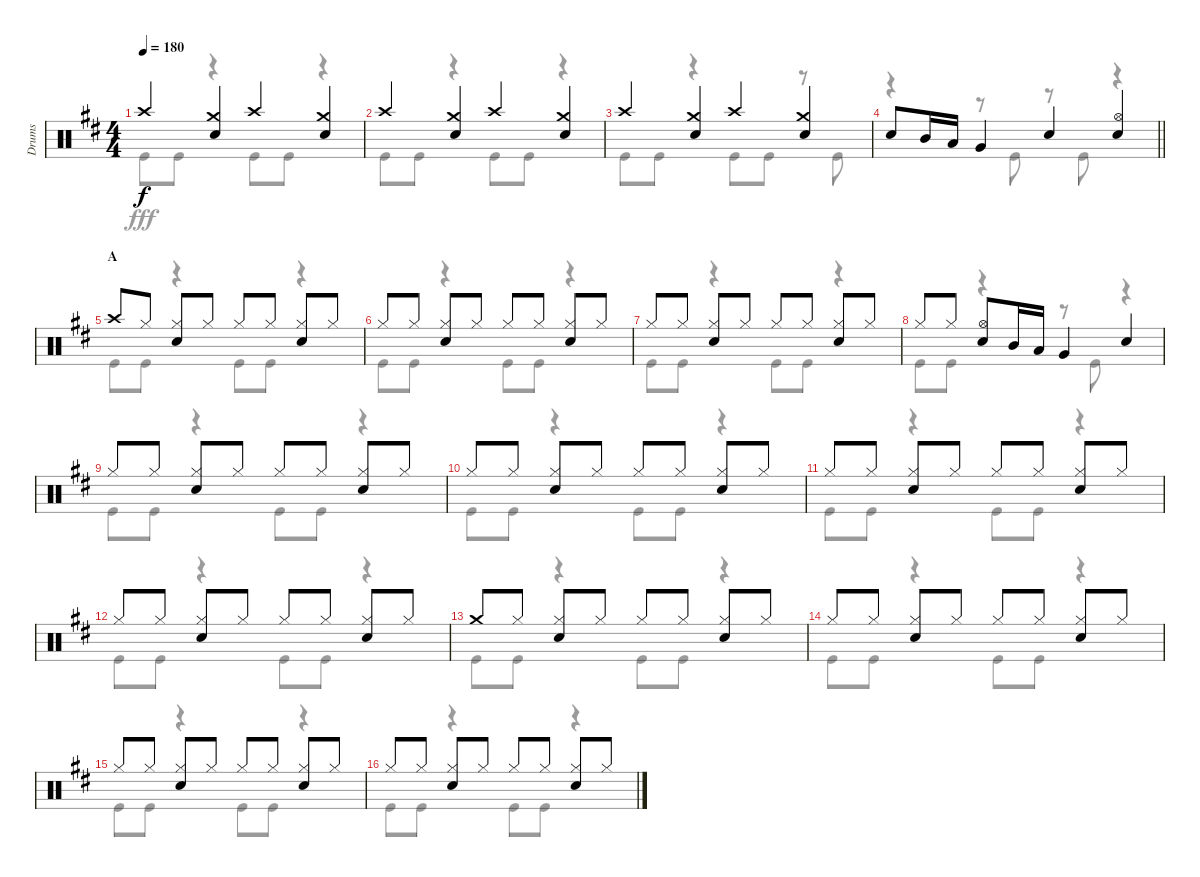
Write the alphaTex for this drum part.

\track ("Drums" "Drums") {instrument percussion}
\staff {score}
\articulation defaults
\voice
\ts (4 4)
\tempo 180
\clef neutral
\ks d "Crash high (hit)".4{dy f}
("Crash medium (hit)" "Snare (hit) 2").4 "Crash high (hit)".4 ("Crash medium (hit)" "Snare (hit) 2").4 |
"Crash high (hit)".4 ("Crash medium (hit)" "Snare (hit) 2").4 "Crash high (hit)".4 ("Crash medium (hit)" "Snare (hit) 2").4 |
"Crash high (hit)".4 ("Crash medium (hit)" "Snare (hit) 2").4 "Crash high (hit)".4 ("Crash medium (hit)" "Snare (hit) 2").4 |
\barLineRight lightlight "Snare (hit) 2".8 "Mid Tom (hit)".16 "Low Tom (hit)".16 "Very Low Tom (hit)".4 "Snare (hit) 2".4
("Hi-Hat (open)" "Snare (hit) 2").4 |
\section ("" "A")
"Crash high (hit)".8 "Hi-Hat (closed)".8 ("Hi-Hat (closed)" "Snare (hit) 2").8 "Hi-Hat (closed)".8 "Hi-Hat (closed)".8 "Hi-Hat (closed)".8 ("Hi-Hat (closed)" "Snare (hit) 2").8 "Hi-Hat (closed)".8 |
"Hi-Hat (closed)".8 "Hi-Hat (closed)".8 ("Hi-Hat (closed)" "Snare (hit) 2").8 "Hi-Hat (closed)".8 "Hi-Hat (closed)".8 "Hi-Hat (closed)".8 ("Hi-Hat (closed)" "Snare (hit) 2").8 "Hi-Hat (closed)".8 |
"Hi-Hat (closed)".8 "Hi-Hat (closed)".8 ("Hi-Hat (closed)" "Snare (hit) 2").8 "Hi-Hat (closed)".8 "Hi-Hat (closed)".8 "Hi-Hat (closed)".8 ("Hi-Hat (closed)" "Snare (hit) 2").8 "Hi-Hat (closed)".8 |
"Hi-Hat (closed)".8 "Hi-Hat (closed)".8 ("Hi-Hat (open)" "Snare (hit) 2").8 "Mid Tom (hit)".16 "Low Tom (hit)".16 "Very Low Tom (hit)".4 "Snare (hit) 2".4 |
"Hi-Hat (closed)".8 "Hi-Hat (closed)".8 ("Hi-Hat (closed)" "Snare (hit) 2").8 "Hi-Hat (closed)".8 "Hi-Hat (closed)".8 "Hi-Hat (closed)".8 ("Hi-Hat (closed)" "Snare (hit) 2").8 "Hi-Hat (closed)".8 |
"Hi-Hat (closed)".8 "Hi-Hat (closed)".8 ("Hi-Hat (closed)" "Snare (hit) 2").8 "Hi-Hat (closed)".8 "Hi-Hat (closed)".8 "Hi-Hat (closed)".8 ("Hi-Hat (closed)" "Snare (hit) 2").8 "Hi-Hat (closed)".8 |
"Hi-Hat (closed)".8 "Hi-Hat (closed)".8 ("Hi-Hat (closed)" "Snare (hit) 2").8 "Hi-Hat (closed)".8 "Hi-Hat (closed)".8 "Hi-Hat (closed)".8 ("Hi-Hat (closed)" "Snare (hit) 2").8 "Hi-Hat (closed)".8 |
"Hi-Hat (closed)".8 "Hi-Hat (closed)".8 ("Hi-Hat (closed)" "Snare (hit) 2").8 "Hi-Hat (closed)".8 "Hi-Hat (closed)".8 "Hi-Hat (closed)".8 ("Hi-Hat (closed)" "Snare (hit) 2").8 "Hi-Hat (closed)".8 |
"Crash medium (hit)".8 "Hi-Hat (closed)".8 ("Hi-Hat (closed)" "Snare (hit) 2").8 "Hi-Hat (closed)".8 "Hi-Hat (closed)".8 "Hi-Hat (closed)".8 ("Hi-Hat (closed)" "Snare (hit) 2").8 "Hi-Hat (closed)".8 |
"Hi-Hat (closed)".8 "Hi-Hat (closed)".8 ("Hi-Hat (closed)" "Snare (hit) 2").8 "Hi-Hat (closed)".8 "Hi-Hat (closed)".8 "Hi-Hat (closed)".8 ("Hi-Hat (closed)" "Snare (hit) 2").8 "Hi-Hat (closed)".8 |
"Hi-Hat (closed)".8 "Hi-Hat (closed)".8 ("Hi-Hat (closed)" "Snare (hit) 2").8 "Hi-Hat (closed)".8 "Hi-Hat (closed)".8 "Hi-Hat (closed)".8 ("Hi-Hat (closed)" "Snare (hit) 2").8 "Hi-Hat (closed)".8 |
"Hi-Hat (closed)".8 "Hi-Hat (closed)".8 ("Hi-Hat (closed)" "Snare (hit) 2").8 "Hi-Hat (closed)".8 "Hi-Hat (closed)".8 "Hi-Hat (closed)".8 ("Hi-Hat (closed)" "Snare (hit) 2").8 "Hi-Hat (closed)".8
\voice
\clef neutral
\ottava regular
\simile none
\ks d "Kick (hit)".8{dy fff} "Kick (hit)".8
r.4 "Kick (hit)".8 "Kick (hit)".8 r.4 |
"Kick (hit)".8 "Kick (hit)".8 r.4 "Kick (hit)".8 "Kick (hit)".8 r.4 |
"Kick (hit)".8 "Kick (hit)".8 r.4 "Kick (hit)".8 "Kick (hit)".8 r.8 "Kick (hit)".8 |
\barLineRight lightlight
r.4 r.8 "Kick (hit)".8 r.8 "Kick (hit)".8 r.4 |
"Kick (hit)".8 "Kick (hit)".8 r.4 "Kick (hit)".8 "Kick (hit)".8 r.4 |
"Kick (hit)".8 "Kick (hit)".8 r.4 "Kick (hit)".8 "Kick (hit)".8 r.4 |
"Kick (hit)".8 "Kick (hit)".8 r.4 "Kick (hit)".8 "Kick (hit)".8 r.4 |
"Kick (hit)".8 "Kick (hit)".8 r.4 r.8 "Kick (hit)".8 r.4 |
"Kick (hit)".8 "Kick (hit)".8 r.4 "Kick (hit)".8 "Kick (hit)".8 r.4 |
"Kick (hit)".8 "Kick (hit)".8 r.4 "Kick (hit)".8 "Kick (hit)".8 r.4 |
"Kick (hit)".8 "Kick (hit)".8 r.4 "Kick (hit)".8 "Kick (hit)".8 r.4 |
"Kick (hit)".8 "Kick (hit)".8 r.4 "Kick (hit)".8 "Kick (hit)".8 r.4 |
"Kick (hit)".8 "Kick (hit)".8 r.4 "Kick (hit)".8 "Kick (hit)".8 r.4 |
"Kick (hit)".8 "Kick (hit)".8 r.4 "Kick (hit)".8 "Kick (hit)".8 r.4 |
"Kick (hit)".8 "Kick (hit)".8 r.4 "Kick (hit)".8 "Kick (hit)".8 r.4 |
"Kick (hit)".8 "Kick (hit)".8 r.4 "Kick (hit)".8 "Kick (hit)".8 r.4
